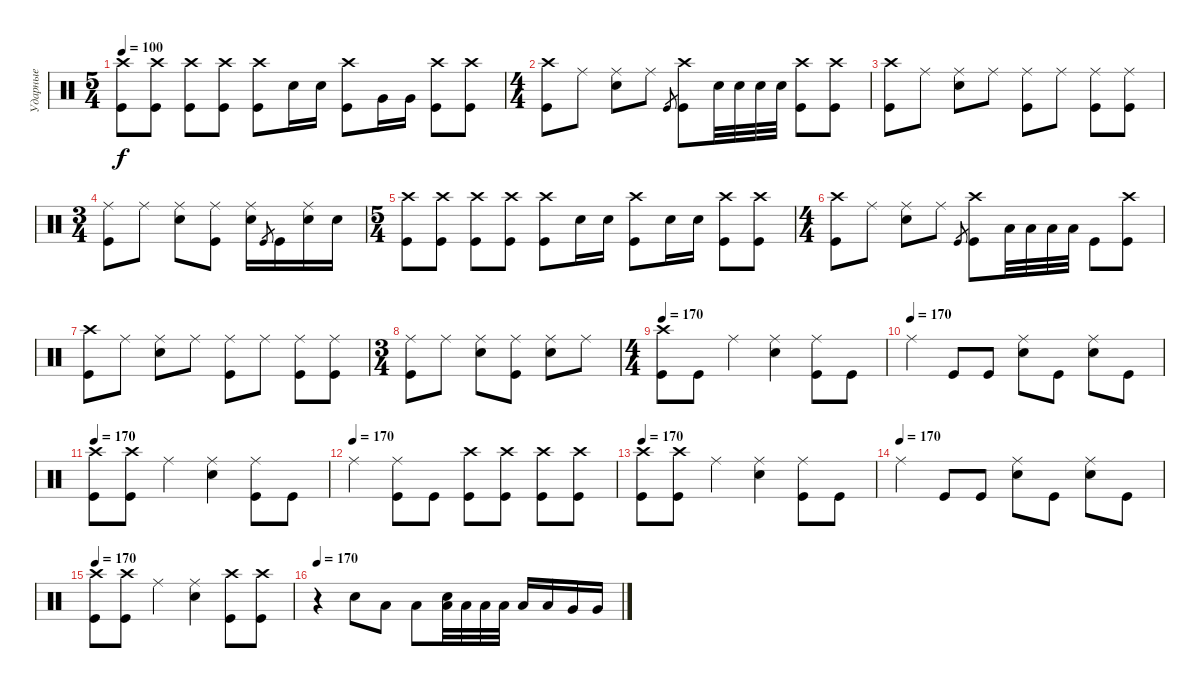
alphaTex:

\track ("Ударные" "Ударные") {instrument percussion}
\staff {score}
\articulation defaults
\ts (5 4)
\tempo 100
\clef neutral
\ks c
("Crash high (hit)" "Kick (hit)").8{dy f} ("Crash high (hit)" "Kick (hit)").8 ("Crash high (hit)" "Kick (hit)").8 ("Crash high (hit)" "Kick (hit)").8 ("Crash high (hit)" "Kick (hit)").8 "Electric Snare (hit)".16 "Electric Snare (hit)".16 ("Crash high (hit)" "Kick (hit)").8 "Very Low Tom (hit)".16 "Very Low Tom (hit)".16 ("Crash high (hit)" "Kick (hit)").8 ("Crash high (hit)" "Kick (hit)").8 |
\ts (4 4)
("Crash high (hit)" "Kick (hit)").8 "Ride (middle)".8 ("Ride (middle)" "Electric Snare (hit)").8 "Ride (middle)".8 "Kick (hit)".8{gr} ("Crash high (hit)" "Kick (hit)").8 "Electric Snare (hit)".32 "Electric Snare (hit)".32 "Electric Snare (hit)".32 "Electric Snare (hit)".32 ("Crash high (hit)" "Kick (hit)").8 ("Crash high (hit)" "Kick (hit)").8 |
("Crash high (hit)" "Kick (hit)").8 "Ride (middle)".8 ("Ride (middle)" "Electric Snare (hit)").8 "Ride (middle)".8 ("Ride (middle)" "Kick (hit)").8 "Ride (middle)".8 ("Ride (middle)" "Kick (hit)").8 ("Ride (middle)" "Kick (hit)").8 |
\ts (3 4)
("Ride (middle)" "Kick (hit)").8 "Ride (middle)".8 ("Ride (middle)" "Electric Snare (hit)").8 ("Ride (middle)" "Kick (hit)").8 ("Ride (middle)" "Electric Snare (hit)").16 "Kick (hit)".8{gr} "Kick (hit)".16 ("Ride (middle)" "Electric Snare (hit)").16 "Electric Snare (hit)".16 |
\ts (5 4)
("Crash high (hit)" "Kick (hit)").8 ("Crash high (hit)" "Kick (hit)").8 ("Crash high (hit)" "Kick (hit)").8 ("Crash high (hit)" "Kick (hit)").8 ("Crash high (hit)" "Kick (hit)").8 "Electric Snare (hit)".16 "Electric Snare (hit)".16 ("Crash high (hit)" "Kick (hit)").8 "Electric Snare (hit)".16 "Electric Snare (hit)".16 ("Crash high (hit)" "Kick (hit)").8 ("Crash high (hit)" "Kick (hit)").8 |
\ts (4 4)
("Crash high (hit)" "Kick (hit)").8 "Ride (middle)".8 ("Ride (middle)" "Electric Snare (hit)").8 "Ride (middle)".8 "Kick (hit)".8{gr} ("Crash high (hit)" "Kick (hit)").8 "Low Tom (hit)".32 "Low Tom (hit)".32 "Low Tom (hit)".32 "Low Tom (hit)".32 "Kick (hit)".8 ("Crash high (hit)" "Kick (hit)").8 |
("Crash high (hit)" "Kick (hit)").8 "Ride (middle)".8 ("Ride (middle)" "Electric Snare (hit)").8 "Ride (middle)".8 ("Ride (middle)" "Kick (hit)").8 "Ride (middle)".8 ("Ride (middle)" "Kick (hit)").8 ("Ride (middle)" "Kick (hit)").8 |
\ts (3 4)
("Ride (middle)" "Kick (hit)").8 "Ride (middle)".8 ("Ride (middle)" "Electric Snare (hit)").8 ("Ride (middle)" "Kick (hit)").8 ("Ride (middle)" "Electric Snare (hit)").8 "Ride (middle)".8 |
\ts (4 4)
\tempo 170
("Crash high (hit)" "Kick (hit)").8 "Kick (hit)".8 "Ride (middle)".4 ("Ride (middle)" "Electric Snare (hit)").4 ("Ride (middle)" "Kick (hit)").8 "Kick (hit)".8 |
\tempo (170)
"Ride (middle)".4 "Kick (hit)".8 "Kick (hit)".8 ("Ride (middle)" "Electric Snare (hit)").8 "Kick (hit)".8 ("Ride (middle)" "Electric Snare (hit)").8 "Kick (hit)".8 |
\tempo 170
("Crash high (hit)" "Kick (hit)").8 ("Crash high (hit)" "Kick (hit)").8 "Ride (middle)".4 ("Ride (middle)" "Electric Snare (hit)").4 ("Ride (middle)" "Kick (hit)").8 "Kick (hit)".8 |
\tempo (170)
"Ride (middle)".4 ("Ride (middle)" "Kick (hit)").8 "Kick (hit)".8 ("Crash high (hit)" "Kick (hit)").8 ("Crash high (hit)" "Kick (hit)").8 ("Crash high (hit)" "Kick (hit)").8 ("Crash high (hit)" "Kick (hit)").8 |
\tempo 170
("Crash high (hit)" "Kick (hit)").8 ("Crash high (hit)" "Kick (hit)").8 "Ride (middle)".4 ("Ride (middle)" "Electric Snare (hit)").4 ("Ride (middle)" "Kick (hit)").8 "Kick (hit)".8 |
\tempo (170)
"Ride (middle)".4 "Kick (hit)".8 "Kick (hit)".8 ("Ride (middle)" "Electric Snare (hit)").8 "Kick (hit)".8 ("Ride (middle)" "Electric Snare (hit)").8 "Kick (hit)".8 |
\tempo 170
("Crash high (hit)" "Kick (hit)").8 ("Crash high (hit)" "Kick (hit)").8 "Ride (middle)".4 ("Ride (middle)" "Electric Snare (hit)").4 ("Crash high (hit)" "Kick (hit)").8 ("Crash high (hit)" "Kick (hit)").8 |
\tempo 170
r.4 "Electric Snare (hit)".8 "Low Tom (hit)".8 "Low Tom (hit)".8 ("Low Tom (hit)" "Electric Snare (hit)").32 "Low Tom (hit)".32 "Low Tom (hit)".32 "Low Tom (hit)".32 "Low Tom (hit)".16 "Low Tom (hit)".16 "Very Low Tom (hit)".16 "Very Low Tom (hit)".16
